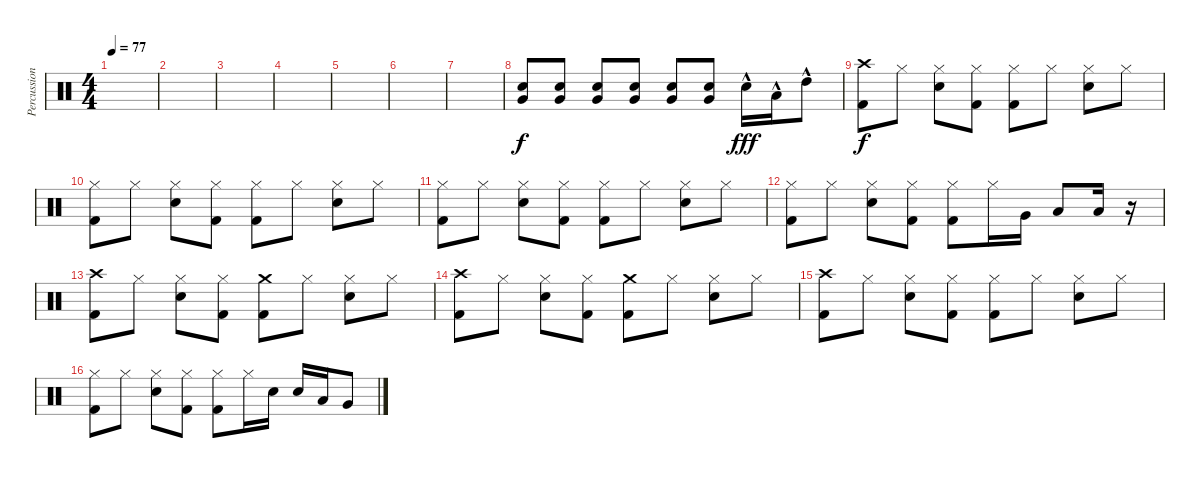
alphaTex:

\track ("Percussion" "Percussion") {instrument percussion}
\staff {score}
\articulation defaults
\ts (4 4)
\tempo 77
\clef neutral
\ks c
|
|
|
|
|
|
|
("Very Low Tom (hit)" "Electric Snare (hit)").8 ("Very Low Tom (hit)" "Electric Snare (hit)").8{volume 9} ("Very Low Tom (hit)" "Electric Snare (hit)").8 ("Very Low Tom (hit)" "Electric Snare (hit)").8{volume 11} ("Very Low Tom (hit)" "Electric Snare (hit)").8{volume 13} ("Very Low Tom (hit)" "Electric Snare (hit)").8 "Electric Snare (hit)"{hac}.16{dy fff} "Low Tom (hit)"{hac}.16 "High Tom (hit)"{hac}.8 |
("Crash high (hit)" "Kick (hit) 2").8{dy f} "Hi-Hat (closed)".8 ("Hi-Hat (closed)" "Electric Snare (hit)").8 ("Hi-Hat (closed)" "Kick (hit) 2").8 ("Hi-Hat (closed)" "Kick (hit) 2").8 "Hi-Hat (closed)".8 ("Hi-Hat (closed)" "Electric Snare (hit)").8 "Hi-Hat (closed)".8 |
("Hi-Hat (closed)" "Kick (hit) 2").8 "Hi-Hat (closed)".8 ("Hi-Hat (closed)" "Electric Snare (hit)").8 ("Hi-Hat (closed)" "Kick (hit) 2").8 ("Hi-Hat (closed)" "Kick (hit) 2").8 "Hi-Hat (closed)".8 ("Hi-Hat (closed)" "Electric Snare (hit)").8 "Hi-Hat (closed)".8 |
("Hi-Hat (closed)" "Kick (hit) 2").8 "Hi-Hat (closed)".8 ("Hi-Hat (closed)" "Electric Snare (hit)").8 ("Hi-Hat (closed)" "Kick (hit) 2").8 ("Hi-Hat (closed)" "Kick (hit) 2").8 "Hi-Hat (closed)".8 ("Hi-Hat (closed)" "Electric Snare (hit)").8 "Hi-Hat (closed)".8 |
("Hi-Hat (closed)" "Kick (hit) 2").8 "Hi-Hat (closed)".8 ("Hi-Hat (closed)" "Electric Snare (hit)").8 ("Hi-Hat (closed)" "Kick (hit) 2").8 ("Hi-Hat (closed)" "Kick (hit) 2").8 "Hi-Hat (closed)".16 "Very Low Tom (hit)".16 "Low Tom (hit)".8 "Low Floor Tom (hit)".16 r.16 |
("Crash high (hit)" "Kick (hit) 2").8 "Hi-Hat (closed)".8 ("Hi-Hat (closed)" "Electric Snare (hit)").8 ("Hi-Hat (closed)" "Kick (hit) 2").8 ("Crash medium (hit)" "Kick (hit) 2").8 "Hi-Hat (closed)".8 ("Hi-Hat (closed)" "Electric Snare (hit)").8 "Hi-Hat (closed)".8 |
("Crash high (hit)" "Kick (hit) 2").8 "Hi-Hat (closed)".8 ("Hi-Hat (closed)" "Electric Snare (hit)").8 ("Hi-Hat (closed)" "Kick (hit) 2").8 ("Crash medium (hit)" "Kick (hit) 2").8 "Hi-Hat (closed)".8 ("Hi-Hat (closed)" "Electric Snare (hit)").8 "Hi-Hat (closed)".8 |
("Crash high (hit)" "Kick (hit) 2").8 "Hi-Hat (closed)".8 ("Hi-Hat (closed)" "Electric Snare (hit)").8 ("Hi-Hat (closed)" "Kick (hit) 2").8 ("Hi-Hat (closed)" "Kick (hit) 2").8 "Hi-Hat (closed)".8 ("Hi-Hat (closed)" "Electric Snare (hit)").8 "Hi-Hat (closed)".8 |
("Hi-Hat (closed)" "Kick (hit) 2").8 "Hi-Hat (closed)".8 ("Hi-Hat (closed)" "Electric Snare (hit)").8 ("Hi-Hat (closed)" "Kick (hit) 2").8 ("Hi-Hat (closed)" "Kick (hit) 2").8 "Hi-Hat (closed)".16 "Electric Snare (hit)".16 "Electric Snare (hit)".16 "Low Tom (hit)".16 "Very Low Tom (hit)".8
